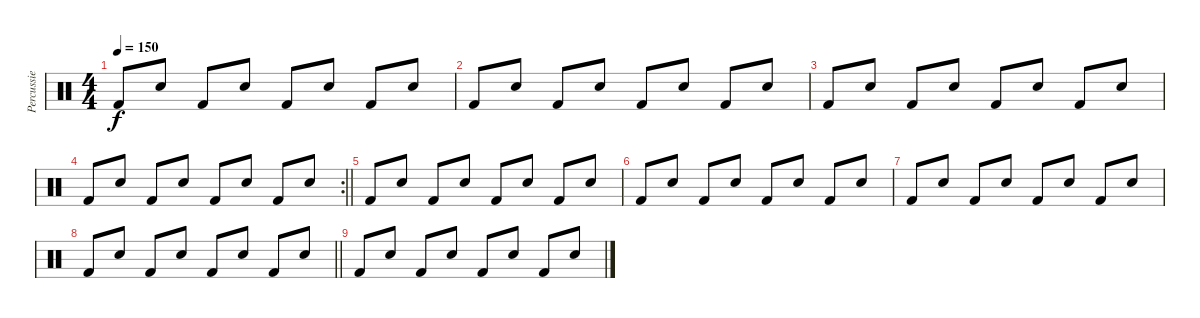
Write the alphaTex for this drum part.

\track ("Percussie" "Percussie") {instrument percussion}
\staff {score}
\articulation defaults
\ts (4 4)
\tempo 150
\clef neutral
\ks c "Kick (hit) 2".8{dy f} "Snare (hit) 2".8 "Kick (hit) 2".8 "Snare (hit) 2".8 "Kick (hit) 2".8 "Snare (hit) 2".8 "Kick (hit) 2".8 "Snare (hit) 2".8
|
"Kick (hit) 2".8 "Snare (hit) 2".8 "Kick (hit) 2".8 "Snare (hit) 2".8 "Kick (hit) 2".8 "Snare (hit) 2".8 "Kick (hit) 2".8 "Snare (hit) 2".8 |
"Kick (hit) 2".8 "Snare (hit) 2".8 "Kick (hit) 2".8 "Snare (hit) 2".8 "Kick (hit) 2".8 "Snare (hit) 2".8 "Kick (hit) 2".8 "Snare (hit) 2".8 |
\rc 2
\barLineRight lightlight "Kick (hit) 2".8 "Snare (hit) 2".8 "Kick (hit) 2".8 "Snare (hit) 2".8 "Kick (hit) 2".8 "Snare (hit) 2".8 "Kick (hit) 2".8 "Snare (hit) 2".8
|
"Kick (hit) 2".8 "Snare (hit) 2".8 "Kick (hit) 2".8 "Snare (hit) 2".8 "Kick (hit) 2".8 "Snare (hit) 2".8 "Kick (hit) 2".8 "Snare (hit) 2".8 |
"Kick (hit) 2".8 "Snare (hit) 2".8 "Kick (hit) 2".8 "Snare (hit) 2".8 "Kick (hit) 2".8 "Snare (hit) 2".8 "Kick (hit) 2".8 "Snare (hit) 2".8 |
"Kick (hit) 2".8 "Snare (hit) 2".8 "Kick (hit) 2".8 "Snare (hit) 2".8 "Kick (hit) 2".8 "Snare (hit) 2".8 "Kick (hit) 2".8 "Snare (hit) 2".8 |
\barLineRight lightlight "Kick (hit) 2".8 "Snare (hit) 2".8 "Kick (hit) 2".8 "Snare (hit) 2".8 "Kick (hit) 2".8 "Snare (hit) 2".8 "Kick (hit) 2".8 "Snare (hit) 2".8
|
"Kick (hit) 2".8 "Snare (hit) 2".8 "Kick (hit) 2".8 "Snare (hit) 2".8 "Kick (hit) 2".8 "Snare (hit) 2".8 "Kick (hit) 2".8 "Snare (hit) 2".8
